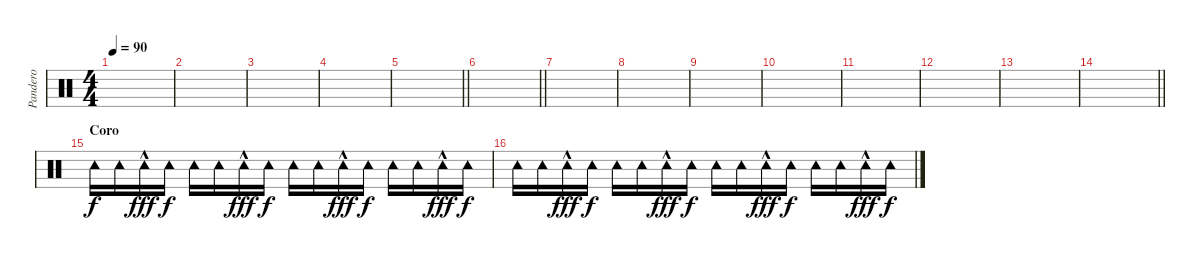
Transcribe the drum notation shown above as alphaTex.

\track ("Pandero" "Pandero") {instrument percussion}
\staff {score}
\articulation defaults
\ts (4 4)
\tempo 90
\clef neutral
\ks c
|
|
|
|
\barLineRight lightlight
|
\barLineRight lightlight
|
|
|
|
|
|
|
|
\barLineRight lightlight
|
\section ("" "Coro")
"Tambourine (hit)".16 "Tambourine (hit)".16 "Tambourine (hit)"{hac}.16{dy fff} "Tambourine (hit)".16{dy f} "Tambourine (hit)".16 "Tambourine (hit)".16 "Tambourine (hit)"{hac}.16{dy fff} "Tambourine (hit)".16{dy f} "Tambourine (hit)".16 "Tambourine (hit)".16 "Tambourine (hit)"{hac}.16{dy fff} "Tambourine (hit)".16{dy f} "Tambourine (hit)".16 "Tambourine (hit)".16 "Tambourine (hit)"{hac}.16{dy fff} "Tambourine (hit)".16{dy f} |
"Tambourine (hit)".16 "Tambourine (hit)".16 "Tambourine (hit)"{hac}.16{dy fff} "Tambourine (hit)".16{dy f} "Tambourine (hit)".16 "Tambourine (hit)".16 "Tambourine (hit)"{hac}.16{dy fff} "Tambourine (hit)".16{dy f} "Tambourine (hit)".16 "Tambourine (hit)".16 "Tambourine (hit)"{hac}.16{dy fff} "Tambourine (hit)".16{dy f} "Tambourine (hit)".16 "Tambourine (hit)".16 "Tambourine (hit)"{hac}.16{dy fff} "Tambourine (hit)".16{dy f}
